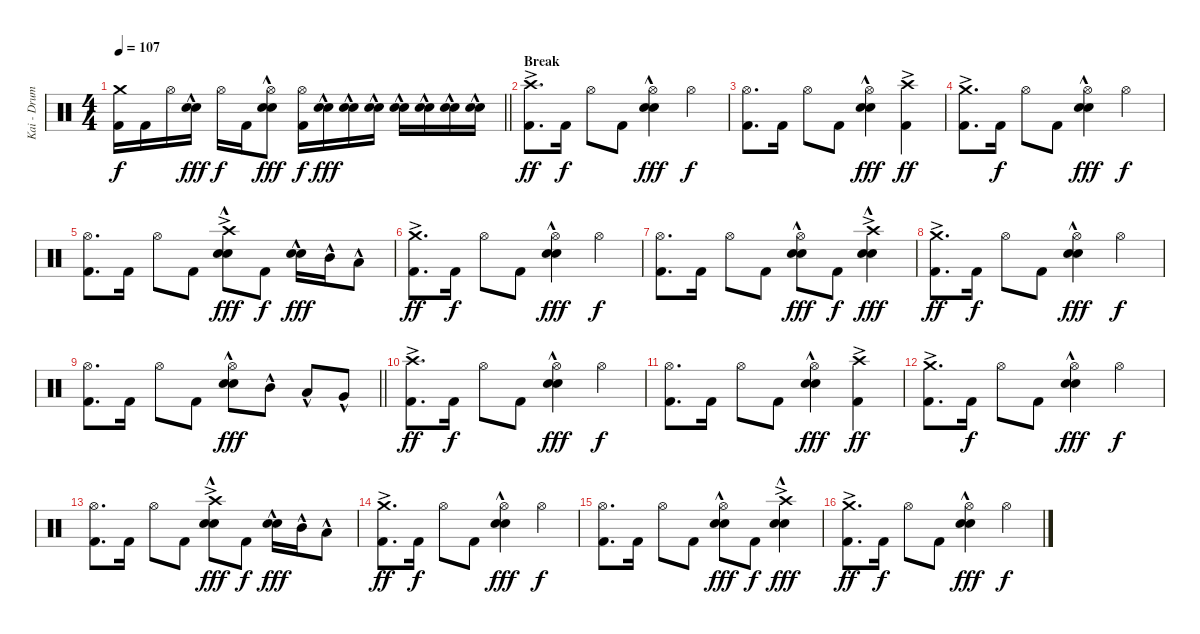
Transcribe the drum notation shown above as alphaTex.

\track ("Kai - Drums" "Kai - Drum") {instrument percussion}
\staff {score}
\articulation defaults
\ts (4 4)
\tempo 107
\clef neutral
\barLineRight lightlight
\ks c
("Crash medium (hit)" "Kick (hit) 2").16{dy f} "Kick (hit) 2".16 "Hi-Hat (open)".16 ("Electric Snare (hit)"{hac} "Snare (hit) 2"{hac}).16{dy fff} "Hi-Hat (open)".16{dy f} "Kick (hit) 2".16 ("Hi-Hat (open)" "Electric Snare (hit)"{hac} "Snare (hit) 2"{hac}).8{dy fff} ("Hi-Hat (open)" "Kick (hit) 2").16{dy f} ("Electric Snare (hit)"{hac} "Snare (hit) 2"{hac}).16{dy fff} ("Electric Snare (hit)"{hac} "Snare (hit) 2"{hac}).16 ("Electric Snare (hit)"{hac} "Snare (hit) 2"{hac}).16 ("Electric Snare (hit)"{hac} "Snare (hit) 2"{hac}).16 ("Electric Snare (hit)"{hac} "Snare (hit) 2"{hac}).16 ("Electric Snare (hit)"{hac} "Snare (hit) 2"{hac}).16 ("Electric Snare (hit)"{hac} "Snare (hit) 2"{hac}).16 |
\section ("" "Break")
("Crash high (hit)"{ac} "Kick (hit) 2").8{d dy ff} "Kick (hit) 2".16{dy f} "Hi-Hat (open)".8 "Kick (hit) 2".8 ("Hi-Hat (open)" "Electric Snare (hit)"{hac} "Snare (hit) 2"{hac}).4{dy fff} "Hi-Hat (open)".4{dy f} |
("Hi-Hat (open)" "Kick (hit) 2").8{d} "Kick (hit) 2".16 "Hi-Hat (open)".8 "Kick (hit) 2".8 ("Hi-Hat (open)" "Electric Snare (hit)"{hac} "Snare (hit) 2"{hac}).4{dy fff} ("Crash high (hit)"{ac} "Kick (hit) 2").4{dy ff} |
("Crash medium (hit)"{ac} "Kick (hit) 2").8{d} "Kick (hit) 2".16{dy f} "Hi-Hat (open)".8 "Kick (hit) 2".8 ("Hi-Hat (open)" "Electric Snare (hit)"{hac} "Snare (hit) 2"{hac}).4{dy fff} "Hi-Hat (open)".4{dy f} |
("Hi-Hat (open)" "Kick (hit) 2").8{d} "Kick (hit) 2".16 "Hi-Hat (open)".8 "Kick (hit) 2".8 ("Crash high (hit)"{ac} "Electric Snare (hit)"{hac} "Snare (hit) 2"{hac}).8{dy fff} "Kick (hit) 2".8{dy f} ("Electric Snare (hit)"{hac} "Snare (hit) 2"{hac}).16{dy fff} "Mid Tom (hit)"{hac}.16 "Low Tom (hit)"{hac}.8 |
("Crash medium (hit)"{ac} "Kick (hit) 2").8{d dy ff} "Kick (hit) 2".16{dy f} "Hi-Hat (open)".8 "Kick (hit) 2".8 ("Hi-Hat (open)" "Electric Snare (hit)"{hac} "Snare (hit) 2"{hac}).4{dy fff} "Hi-Hat (open)".4{dy f} |
("Hi-Hat (open)" "Kick (hit) 2").8{d} "Kick (hit) 2".16 "Hi-Hat (open)".8 "Kick (hit) 2".8 ("Hi-Hat (open)" "Electric Snare (hit)"{hac} "Snare (hit) 2"{hac}).8{dy fff} "Kick (hit) 2".8{dy f} ("Crash high (hit)"{ac} "Electric Snare (hit)"{hac} "Snare (hit) 2"{hac}).4{dy fff} |
("Crash medium (hit)"{ac} "Kick (hit) 2").8{d dy ff} "Kick (hit) 2".16{dy f} "Hi-Hat (open)".8 "Kick (hit) 2".8 ("Hi-Hat (open)" "Electric Snare (hit)"{hac} "Snare (hit) 2"{hac}).4{dy fff} "Hi-Hat (open)".4{dy f} |
\barLineRight lightlight
("Hi-Hat (open)" "Kick (hit) 2").8{d} "Kick (hit) 2".16 "Hi-Hat (open)".8 "Kick (hit) 2".8 ("Hi-Hat (open)" "Electric Snare (hit)"{hac} "Snare (hit) 2"{hac}).8{dy fff} "Mid Tom (hit)"{hac}.8 "Low Tom (hit)"{hac}.8 "Very Low Tom (hit)"{hac}.8 |
\section ("" "")
("Crash high (hit)"{ac} "Kick (hit) 2").8{d dy ff} "Kick (hit) 2".16{dy f} "Hi-Hat (open)".8 "Kick (hit) 2".8 ("Hi-Hat (open)" "Electric Snare (hit)"{hac} "Snare (hit) 2"{hac}).4{dy fff} "Hi-Hat (open)".4{dy f} |
("Hi-Hat (open)" "Kick (hit) 2").8{d} "Kick (hit) 2".16 "Hi-Hat (open)".8 "Kick (hit) 2".8 ("Hi-Hat (open)" "Electric Snare (hit)"{hac} "Snare (hit) 2"{hac}).4{dy fff} ("Crash high (hit)"{ac} "Kick (hit) 2").4{dy ff} |
("Crash medium (hit)"{ac} "Kick (hit) 2").8{d} "Kick (hit) 2".16{dy f} "Hi-Hat (open)".8 "Kick (hit) 2".8 ("Hi-Hat (open)" "Electric Snare (hit)"{hac} "Snare (hit) 2"{hac}).4{dy fff} "Hi-Hat (open)".4{dy f} |
("Hi-Hat (open)" "Kick (hit) 2").8{d} "Kick (hit) 2".16 "Hi-Hat (open)".8 "Kick (hit) 2".8 ("Crash high (hit)"{ac} "Electric Snare (hit)"{hac} "Snare (hit) 2"{hac}).8{dy fff} "Kick (hit) 2".8{dy f} ("Electric Snare (hit)"{hac} "Snare (hit) 2"{hac}).16{dy fff} "Mid Tom (hit)"{hac}.16 "Low Tom (hit)"{hac}.8 |
("Crash medium (hit)"{ac} "Kick (hit) 2").8{d dy ff} "Kick (hit) 2".16{dy f} "Hi-Hat (open)".8 "Kick (hit) 2".8 ("Hi-Hat (open)" "Electric Snare (hit)"{hac} "Snare (hit) 2"{hac}).4{dy fff} "Hi-Hat (open)".4{dy f} |
("Hi-Hat (open)" "Kick (hit) 2").8{d} "Kick (hit) 2".16 "Hi-Hat (open)".8 "Kick (hit) 2".8 ("Hi-Hat (open)" "Electric Snare (hit)"{hac} "Snare (hit) 2"{hac}).8{dy fff} "Kick (hit) 2".8{dy f} ("Crash high (hit)"{ac} "Electric Snare (hit)"{hac} "Snare (hit) 2"{hac}).4{dy fff} |
("Crash medium (hit)"{ac} "Kick (hit) 2").8{d dy ff} "Kick (hit) 2".16{dy f} "Hi-Hat (open)".8 "Kick (hit) 2".8 ("Hi-Hat (open)" "Electric Snare (hit)"{hac} "Snare (hit) 2"{hac}).4{dy fff} "Hi-Hat (open)".4{dy f}
